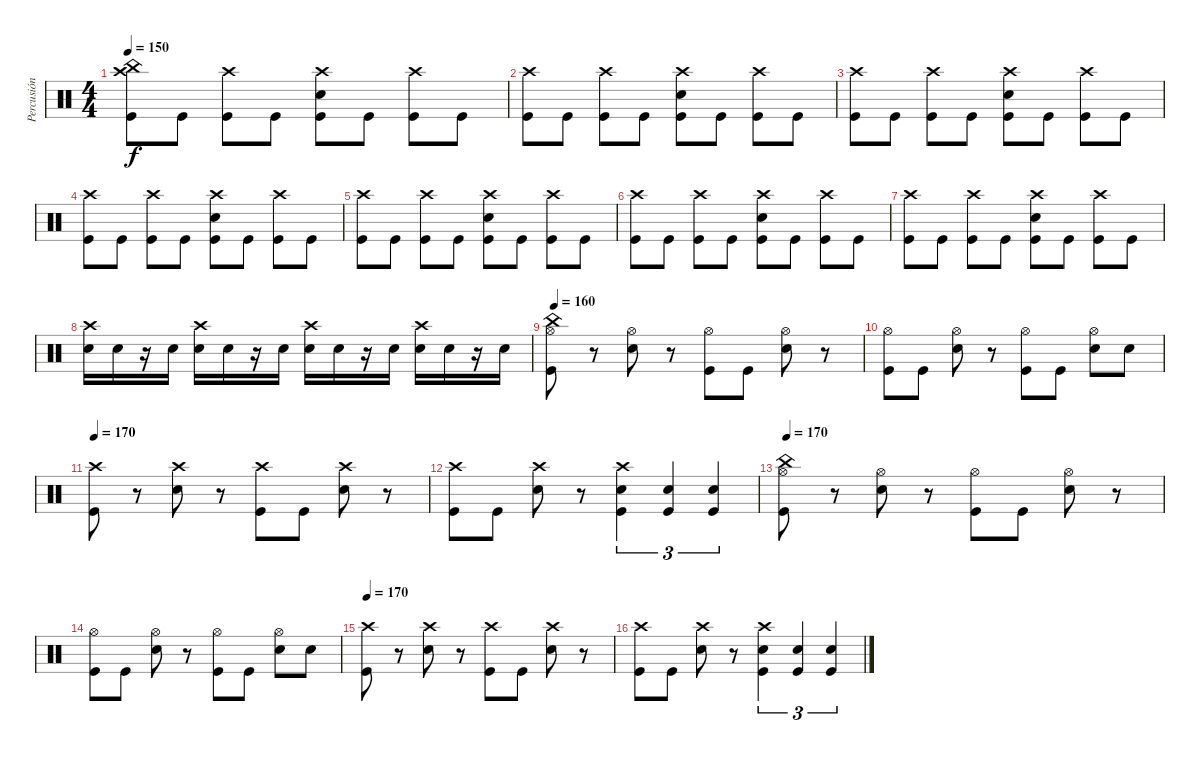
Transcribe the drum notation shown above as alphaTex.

\track ("Percusión  Gabriela" "Percusión ") {instrument percussion}
\staff {score}
\articulation defaults
\ts (4 4)
\tempo 150
\clef neutral
\ks c
("Crash high (hit)" "Kick (hit)" "China (hit)").8{dy f} "Kick (hit)".8 ("Crash high (hit)" "Kick (hit)").8 "Kick (hit)".8 ("Crash high (hit)" "Kick (hit)" "Snare (hit) 2").8 "Kick (hit)".8 ("Crash high (hit)" "Kick (hit)").8 "Kick (hit)".8 |
("Crash high (hit)" "Kick (hit)").8 "Kick (hit)".8 ("Crash high (hit)" "Kick (hit)").8 "Kick (hit)".8 ("Crash high (hit)" "Kick (hit)" "Snare (hit) 2").8 "Kick (hit)".8 ("Crash high (hit)" "Kick (hit)").8 "Kick (hit)".8 |
("Crash high (hit)" "Kick (hit)").8 "Kick (hit)".8 ("Crash high (hit)" "Kick (hit)").8 "Kick (hit)".8 ("Crash high (hit)" "Kick (hit)" "Snare (hit) 2").8 "Kick (hit)".8 ("Crash high (hit)" "Kick (hit)").8 "Kick (hit)".8 |
("Crash high (hit)" "Kick (hit)").8 "Kick (hit)".8 ("Crash high (hit)" "Kick (hit)").8 "Kick (hit)".8 ("Crash high (hit)" "Kick (hit)" "Snare (hit) 2").8 "Kick (hit)".8 ("Crash high (hit)" "Kick (hit)").8 "Kick (hit)".8 |
("Crash high (hit)" "Kick (hit)").8 "Kick (hit)".8 ("Crash high (hit)" "Kick (hit)").8 "Kick (hit)".8 ("Crash high (hit)" "Kick (hit)" "Snare (hit) 2").8 "Kick (hit)".8 ("Crash high (hit)" "Kick (hit)").8 "Kick (hit)".8 |
("Crash high (hit)" "Kick (hit)").8 "Kick (hit)".8 ("Crash high (hit)" "Kick (hit)").8 "Kick (hit)".8 ("Crash high (hit)" "Kick (hit)" "Snare (hit) 2").8 "Kick (hit)".8 ("Crash high (hit)" "Kick (hit)").8 "Kick (hit)".8 |
("Crash high (hit)" "Kick (hit)").8 "Kick (hit)".8 ("Crash high (hit)" "Kick (hit)").8 "Kick (hit)".8 ("Crash high (hit)" "Kick (hit)" "Snare (hit) 2").8 "Kick (hit)".8 ("Crash high (hit)" "Kick (hit)").8 "Kick (hit)".8 |
("Crash high (hit)" "Snare (hit) 2").16 "Snare (hit) 2".16 r.16 "Snare (hit) 2".16 ("Crash high (hit)" "Snare (hit) 2").16 "Snare (hit) 2".16 r.16 "Snare (hit) 2".16 ("Crash high (hit)" "Snare (hit) 2").16 "Snare (hit) 2".16 r.16 "Snare (hit) 2".16 ("Crash high (hit)" "Snare (hit) 2").16 "Snare (hit) 2".16 r.16 "Snare (hit) 2".16 |
\tempo 160
("Hi-Hat (open)" "China (hit)" "Kick (hit)").8 r.8 ("Hi-Hat (open)" "Snare (hit) 2").8 r.8 ("Hi-Hat (open)" "Kick (hit)").8 "Kick (hit)".8 ("Snare (hit) 2" "Hi-Hat (open)").8 r.8 |
("Hi-Hat (open)" "Kick (hit)").8 "Kick (hit)".8 ("Hi-Hat (open)" "Snare (hit) 2").8 r.8 ("Hi-Hat (open)" "Kick (hit)").8 "Kick (hit)".8 ("Hi-Hat (open)" "Snare (hit) 2").8 "Snare (hit) 2".8 |
\tempo 170
("Crash high (hit)" "Kick (hit)").8 r.8 ("Crash high (hit)" "Snare (hit) 2").8 r.8 ("Crash high (hit)" "Kick (hit)").8 "Kick (hit)".8 ("Snare (hit) 2" "Crash high (hit)").8 r.8 |
("Crash high (hit)" "Kick (hit)").8 "Kick (hit)".8 ("Crash high (hit)" "Snare (hit) 2").8 r.8 ("Crash high (hit)" "Snare (hit) 2" "Kick (hit)").4{tu (3 2)} ("Snare (hit) 2" "Kick (hit)").4{tu (3 2)} ("Kick (hit)" "Snare (hit) 2").4{tu (3 2)} |
\tempo 170
("Hi-Hat (open)" "China (hit)" "Kick (hit)").8 r.8 ("Hi-Hat (open)" "Snare (hit) 2").8 r.8 ("Hi-Hat (open)" "Kick (hit)").8 "Kick (hit)".8 ("Snare (hit) 2" "Hi-Hat (open)").8 r.8 |
("Hi-Hat (open)" "Kick (hit)").8 "Kick (hit)".8 ("Hi-Hat (open)" "Snare (hit) 2").8 r.8 ("Hi-Hat (open)" "Kick (hit)").8 "Kick (hit)".8 ("Hi-Hat (open)" "Snare (hit) 2").8 "Snare (hit) 2".8 |
\tempo 170
("Crash high (hit)" "Kick (hit)").8 r.8 ("Crash high (hit)" "Snare (hit) 2").8 r.8 ("Crash high (hit)" "Kick (hit)").8 "Kick (hit)".8 ("Snare (hit) 2" "Crash high (hit)").8 r.8 |
("Crash high (hit)" "Kick (hit)").8 "Kick (hit)".8 ("Crash high (hit)" "Snare (hit) 2").8 r.8 ("Crash high (hit)" "Snare (hit) 2" "Kick (hit)").4{tu (3 2)} ("Snare (hit) 2" "Kick (hit)").4{tu (3 2)} ("Kick (hit)" "Snare (hit) 2").4{tu (3 2)}
